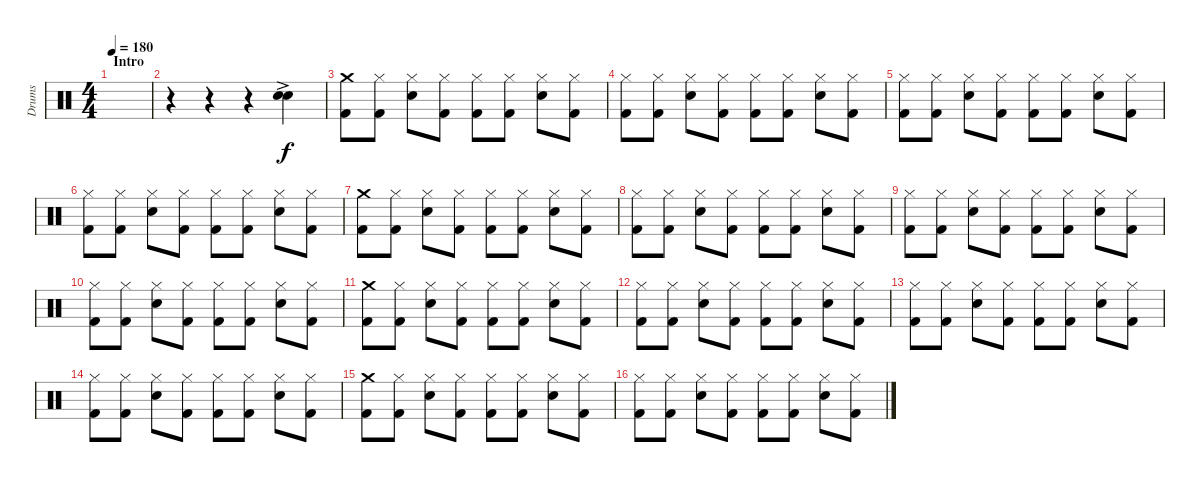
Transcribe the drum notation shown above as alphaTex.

\track ("Drums" "Drums") {instrument percussion}
\staff {score}
\articulation defaults
\ts (4 4)
\section ("" "Intro")
\tempo 180
\clef neutral
\ks c
|
r.4 r.4 r.4 ("Electric Snare (hit)"{ac} "Electric Snare (hit)"{ac}).4 |
("Crash medium (hit)" "Kick (hit) 2").8{dy f} ("Hi-Hat (closed)" "Kick (hit) 2").8 ("Hi-Hat (closed)" "Electric Snare (hit)").8 ("Hi-Hat (closed)" "Kick (hit) 2").8 ("Hi-Hat (closed)" "Kick (hit) 2").8 ("Hi-Hat (closed)" "Kick (hit) 2").8 ("Hi-Hat (closed)" "Electric Snare (hit)").8 ("Hi-Hat (closed)" "Kick (hit) 2").8 |
("Hi-Hat (closed)" "Kick (hit) 2").8 ("Hi-Hat (closed)" "Kick (hit) 2").8 ("Hi-Hat (closed)" "Electric Snare (hit)").8 ("Hi-Hat (closed)" "Kick (hit) 2").8 ("Hi-Hat (closed)" "Kick (hit) 2").8 ("Hi-Hat (closed)" "Kick (hit) 2").8 ("Hi-Hat (closed)" "Electric Snare (hit)").8 ("Hi-Hat (closed)" "Kick (hit) 2").8 |
("Hi-Hat (closed)" "Kick (hit) 2").8 ("Hi-Hat (closed)" "Kick (hit) 2").8 ("Hi-Hat (closed)" "Electric Snare (hit)").8 ("Hi-Hat (closed)" "Kick (hit) 2").8 ("Hi-Hat (closed)" "Kick (hit) 2").8 ("Hi-Hat (closed)" "Kick (hit) 2").8 ("Hi-Hat (closed)" "Electric Snare (hit)").8 ("Hi-Hat (closed)" "Kick (hit) 2").8 |
("Hi-Hat (closed)" "Kick (hit) 2").8 ("Hi-Hat (closed)" "Kick (hit) 2").8 ("Hi-Hat (closed)" "Electric Snare (hit)").8 ("Hi-Hat (closed)" "Kick (hit) 2").8 ("Hi-Hat (closed)" "Kick (hit) 2").8 ("Hi-Hat (closed)" "Kick (hit) 2").8 ("Hi-Hat (closed)" "Electric Snare (hit)").8 ("Hi-Hat (closed)" "Kick (hit) 2").8 |
("Crash medium (hit)" "Kick (hit) 2").8 ("Hi-Hat (closed)" "Kick (hit) 2").8 ("Hi-Hat (closed)" "Electric Snare (hit)").8 ("Hi-Hat (closed)" "Kick (hit) 2").8 ("Hi-Hat (closed)" "Kick (hit) 2").8 ("Hi-Hat (closed)" "Kick (hit) 2").8 ("Hi-Hat (closed)" "Electric Snare (hit)").8 ("Hi-Hat (closed)" "Kick (hit) 2").8 |
("Hi-Hat (closed)" "Kick (hit) 2").8 ("Hi-Hat (closed)" "Kick (hit) 2").8 ("Hi-Hat (closed)" "Electric Snare (hit)").8 ("Hi-Hat (closed)" "Kick (hit) 2").8 ("Hi-Hat (closed)" "Kick (hit) 2").8 ("Hi-Hat (closed)" "Kick (hit) 2").8 ("Hi-Hat (closed)" "Electric Snare (hit)").8 ("Hi-Hat (closed)" "Kick (hit) 2").8 |
("Hi-Hat (closed)" "Kick (hit) 2").8 ("Hi-Hat (closed)" "Kick (hit) 2").8 ("Hi-Hat (closed)" "Electric Snare (hit)").8 ("Hi-Hat (closed)" "Kick (hit) 2").8 ("Hi-Hat (closed)" "Kick (hit) 2").8 ("Hi-Hat (closed)" "Kick (hit) 2").8 ("Hi-Hat (closed)" "Electric Snare (hit)").8 ("Hi-Hat (closed)" "Kick (hit) 2").8 |
("Hi-Hat (closed)" "Kick (hit) 2").8 ("Hi-Hat (closed)" "Kick (hit) 2").8 ("Hi-Hat (closed)" "Electric Snare (hit)").8 ("Hi-Hat (closed)" "Kick (hit) 2").8 ("Hi-Hat (closed)" "Kick (hit) 2").8 ("Hi-Hat (closed)" "Kick (hit) 2").8 ("Hi-Hat (closed)" "Electric Snare (hit)").8 ("Hi-Hat (closed)" "Kick (hit) 2").8 |
("Crash medium (hit)" "Kick (hit) 2").8 ("Hi-Hat (closed)" "Kick (hit) 2").8 ("Hi-Hat (closed)" "Electric Snare (hit)").8 ("Hi-Hat (closed)" "Kick (hit) 2").8 ("Hi-Hat (closed)" "Kick (hit) 2").8 ("Hi-Hat (closed)" "Kick (hit) 2").8 ("Hi-Hat (closed)" "Electric Snare (hit)").8 ("Hi-Hat (closed)" "Kick (hit) 2").8 |
("Hi-Hat (closed)" "Kick (hit) 2").8 ("Hi-Hat (closed)" "Kick (hit) 2").8 ("Hi-Hat (closed)" "Electric Snare (hit)").8 ("Hi-Hat (closed)" "Kick (hit) 2").8 ("Hi-Hat (closed)" "Kick (hit) 2").8 ("Hi-Hat (closed)" "Kick (hit) 2").8 ("Hi-Hat (closed)" "Electric Snare (hit)").8 ("Hi-Hat (closed)" "Kick (hit) 2").8 |
("Hi-Hat (closed)" "Kick (hit) 2").8 ("Hi-Hat (closed)" "Kick (hit) 2").8 ("Hi-Hat (closed)" "Electric Snare (hit)").8 ("Hi-Hat (closed)" "Kick (hit) 2").8 ("Hi-Hat (closed)" "Kick (hit) 2").8 ("Hi-Hat (closed)" "Kick (hit) 2").8 ("Hi-Hat (closed)" "Electric Snare (hit)").8 ("Hi-Hat (closed)" "Kick (hit) 2").8 |
("Hi-Hat (closed)" "Kick (hit) 2").8 ("Hi-Hat (closed)" "Kick (hit) 2").8 ("Hi-Hat (closed)" "Electric Snare (hit)").8 ("Hi-Hat (closed)" "Kick (hit) 2").8 ("Hi-Hat (closed)" "Kick (hit) 2").8 ("Hi-Hat (closed)" "Kick (hit) 2").8 ("Hi-Hat (closed)" "Electric Snare (hit)").8 ("Hi-Hat (closed)" "Kick (hit) 2").8 |
("Crash medium (hit)" "Kick (hit) 2").8 ("Hi-Hat (closed)" "Kick (hit) 2").8 ("Hi-Hat (closed)" "Electric Snare (hit)").8 ("Hi-Hat (closed)" "Kick (hit) 2").8 ("Hi-Hat (closed)" "Kick (hit) 2").8 ("Hi-Hat (closed)" "Kick (hit) 2").8 ("Hi-Hat (closed)" "Electric Snare (hit)").8 ("Hi-Hat (closed)" "Kick (hit) 2").8 |
("Hi-Hat (closed)" "Kick (hit) 2").8 ("Hi-Hat (closed)" "Kick (hit) 2").8 ("Hi-Hat (closed)" "Electric Snare (hit)").8 ("Hi-Hat (closed)" "Kick (hit) 2").8 ("Hi-Hat (closed)" "Kick (hit) 2").8 ("Hi-Hat (closed)" "Kick (hit) 2").8 ("Hi-Hat (closed)" "Electric Snare (hit)").8 ("Hi-Hat (closed)" "Kick (hit) 2").8
